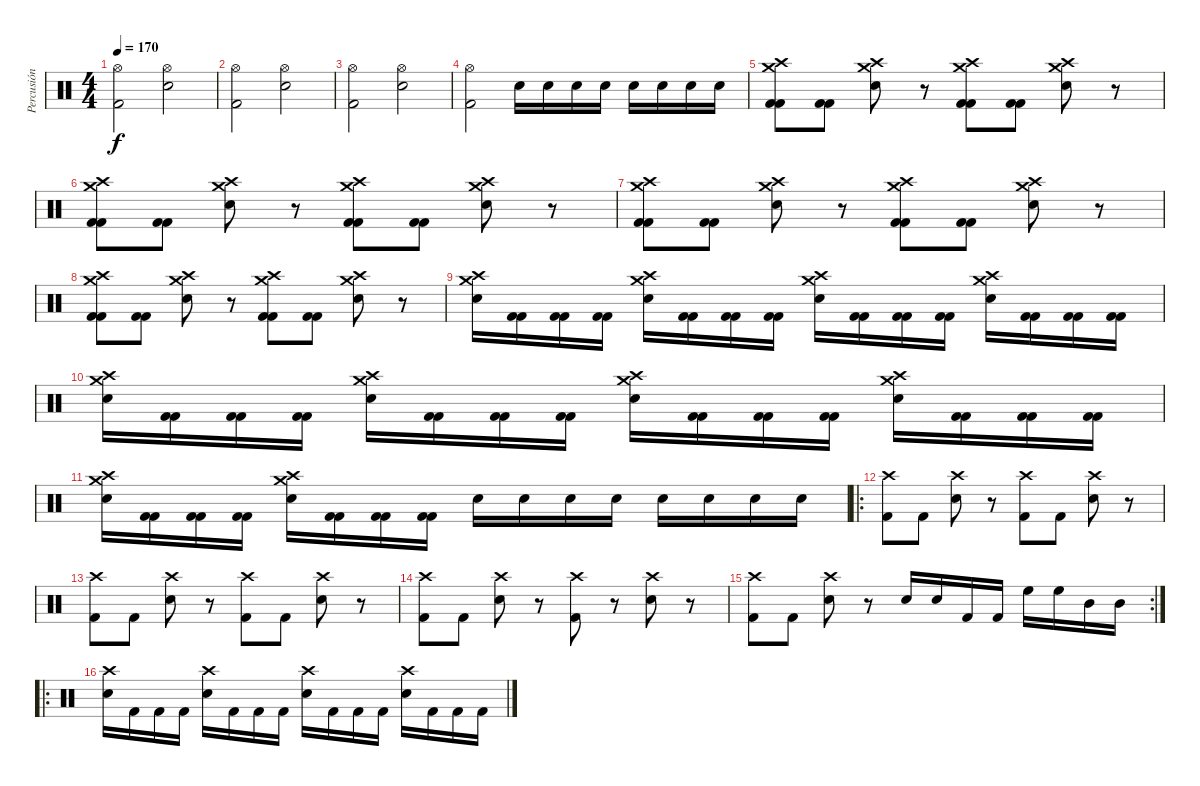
\track ("Percusión" "Percusión") {instrument percussion}
\staff {score}
\articulation defaults
\ts (4 4)
\tempo 170
\clef neutral
\ks c
("Hi-Hat (open)" "Kick (hit) 2").2{dy f} ("Hi-Hat (open)" "Electric Snare (hit)").2 |
("Hi-Hat (open)" "Kick (hit) 2").2 ("Hi-Hat (open)" "Electric Snare (hit)").2 |
("Hi-Hat (open)" "Kick (hit) 2").2 ("Hi-Hat (open)" "Electric Snare (hit)").2 |
("Hi-Hat (open)" "Kick (hit) 2").2 "Electric Snare (hit)".16 "Electric Snare (hit)".16 "Electric Snare (hit)".16 "Electric Snare (hit)".16 "Electric Snare (hit)".16 "Electric Snare (hit)".16 "Electric Snare (hit)".16 "Electric Snare (hit)".16 |
("Crash high (hit)" "Crash medium (hit)" "Kick (hit) 2" "Kick (hit) 2").8 ("Kick (hit) 2" "Kick (hit) 2").8 ("Crash high (hit)" "Crash medium (hit)" "Electric Snare (hit)").8 r.8 ("Crash high (hit)" "Crash medium (hit)" "Kick (hit) 2" "Kick (hit) 2").8 ("Kick (hit) 2" "Kick (hit) 2").8 ("Crash high (hit)" "Crash medium (hit)" "Electric Snare (hit)").8 r.8 |
("Crash medium (hit)" "Crash high (hit)" "Kick (hit) 2" "Kick (hit) 2").8 ("Kick (hit) 2" "Kick (hit) 2").8 ("Crash medium (hit)" "Crash high (hit)" "Electric Snare (hit)").8 r.8 ("Crash medium (hit)" "Crash high (hit)" "Kick (hit) 2" "Kick (hit) 2").8 ("Kick (hit) 2" "Kick (hit) 2").8 ("Crash medium (hit)" "Crash high (hit)" "Electric Snare (hit)").8 r.8 |
("Crash high (hit)" "Crash medium (hit)" "Kick (hit) 2" "Kick (hit) 2").8 ("Kick (hit) 2" "Kick (hit) 2").8 ("Crash high (hit)" "Crash medium (hit)" "Electric Snare (hit)").8 r.8 ("Crash high (hit)" "Crash medium (hit)" "Kick (hit) 2" "Kick (hit) 2").8 ("Kick (hit) 2" "Kick (hit) 2").8 ("Crash high (hit)" "Crash medium (hit)" "Electric Snare (hit)").8 r.8 |
("Crash medium (hit)" "Crash high (hit)" "Kick (hit) 2" "Kick (hit) 2").8 ("Kick (hit) 2" "Kick (hit) 2").8 ("Crash medium (hit)" "Crash high (hit)" "Electric Snare (hit)").8 r.8 ("Crash medium (hit)" "Crash high (hit)" "Kick (hit) 2" "Kick (hit) 2").8 ("Kick (hit) 2" "Kick (hit) 2").8 ("Crash medium (hit)" "Crash high (hit)" "Electric Snare (hit)").8 r.8 |
("Crash high (hit)" "Crash medium (hit)" "Electric Snare (hit)").16 ("Kick (hit) 2" "Kick (hit) 2").16 ("Kick (hit) 2" "Kick (hit) 2").16 ("Kick (hit) 2" "Kick (hit) 2").16 ("Crash high (hit)" "Crash medium (hit)" "Electric Snare (hit)").16 ("Kick (hit) 2" "Kick (hit) 2").16 ("Kick (hit) 2" "Kick (hit) 2").16 ("Kick (hit) 2" "Kick (hit) 2").16 ("Crash high (hit)" "Crash medium (hit)" "Electric Snare (hit)").16 ("Kick (hit) 2" "Kick (hit) 2").16 ("Kick (hit) 2" "Kick (hit) 2").16 ("Kick (hit) 2" "Kick (hit) 2").16 ("Crash high (hit)" "Crash medium (hit)" "Electric Snare (hit)").16 ("Kick (hit) 2" "Kick (hit) 2").16 ("Kick (hit) 2" "Kick (hit) 2").16 ("Kick (hit) 2" "Kick (hit) 2").16 |
("Crash high (hit)" "Crash medium (hit)" "Electric Snare (hit)").16 ("Kick (hit) 2" "Kick (hit) 2").16 ("Kick (hit) 2" "Kick (hit) 2").16 ("Kick (hit) 2" "Kick (hit) 2").16 ("Crash high (hit)" "Crash medium (hit)" "Electric Snare (hit)").16 ("Kick (hit) 2" "Kick (hit) 2").16 ("Kick (hit) 2" "Kick (hit) 2").16 ("Kick (hit) 2" "Kick (hit) 2").16 ("Crash high (hit)" "Crash medium (hit)" "Electric Snare (hit)").16 ("Kick (hit) 2" "Kick (hit) 2").16 ("Kick (hit) 2" "Kick (hit) 2").16 ("Kick (hit) 2" "Kick (hit) 2").16 ("Crash high (hit)" "Crash medium (hit)" "Electric Snare (hit)").16 ("Kick (hit) 2" "Kick (hit) 2").16 ("Kick (hit) 2" "Kick (hit) 2").16 ("Kick (hit) 2" "Kick (hit) 2").16 |
("Crash high (hit)" "Crash medium (hit)" "Electric Snare (hit)").16 ("Kick (hit) 2" "Kick (hit) 2").16 ("Kick (hit) 2" "Kick (hit) 2").16 ("Kick (hit) 2" "Kick (hit) 2").16 ("Crash high (hit)" "Crash medium (hit)" "Electric Snare (hit)").16 ("Kick (hit) 2" "Kick (hit) 2").16 ("Kick (hit) 2" "Kick (hit) 2").16 ("Kick (hit) 2" "Kick (hit) 2").16 "Electric Snare (hit)".16 "Electric Snare (hit)".16 "Electric Snare (hit)".16 "Electric Snare (hit)".16 "Electric Snare (hit)".16 "Electric Snare (hit)".16 "Electric Snare (hit)".16 "Electric Snare (hit)".16 |
\ro
("Crash high (hit)" "Kick (hit) 2").8 "Kick (hit) 2".8 ("Crash high (hit)" "Electric Snare (hit)").8 r.8 ("Crash high (hit)" "Kick (hit) 2").8 "Kick (hit) 2".8 ("Crash high (hit)" "Electric Snare (hit)").8 r.8 |
("Crash high (hit)" "Kick (hit) 2").8 "Kick (hit) 2".8 ("Crash high (hit)" "Electric Snare (hit)").8 r.8 ("Crash high (hit)" "Kick (hit) 2").8 "Kick (hit) 2".8 ("Crash high (hit)" "Electric Snare (hit)").8 r.8 |
("Crash high (hit)" "Kick (hit) 2").8 "Kick (hit) 2".8 ("Crash high (hit)" "Electric Snare (hit)").8 r.8 ("Crash high (hit)" "Kick (hit) 2").8 r.8 ("Crash high (hit)" "Electric Snare (hit)").8 r.8 |
\rc 2
("Crash high (hit)" "Kick (hit) 2").8 "Kick (hit) 2".8 ("Crash high (hit)" "Electric Snare (hit)").8 r.8 "Electric Snare (hit)".16 "Electric Snare (hit)".16 "Kick (hit) 2".16 "Kick (hit) 2".16 "High Floor Tom (hit)".16 "High Floor Tom (hit)".16 "Mid Tom (hit)".16 "Mid Tom (hit)".16 |
\ro
("Crash high (hit)" "Electric Snare (hit)").16 "Kick (hit) 2".16 "Kick (hit) 2".16 "Kick (hit) 2".16 ("Crash high (hit)" "Electric Snare (hit)").16 "Kick (hit) 2".16 "Kick (hit) 2".16 "Kick (hit) 2".16 ("Crash high (hit)" "Electric Snare (hit)").16 "Kick (hit) 2".16 "Kick (hit) 2".16 "Kick (hit) 2".16 ("Crash high (hit)" "Electric Snare (hit)").16 "Kick (hit) 2".16 "Kick (hit) 2".16 "Kick (hit) 2".16
